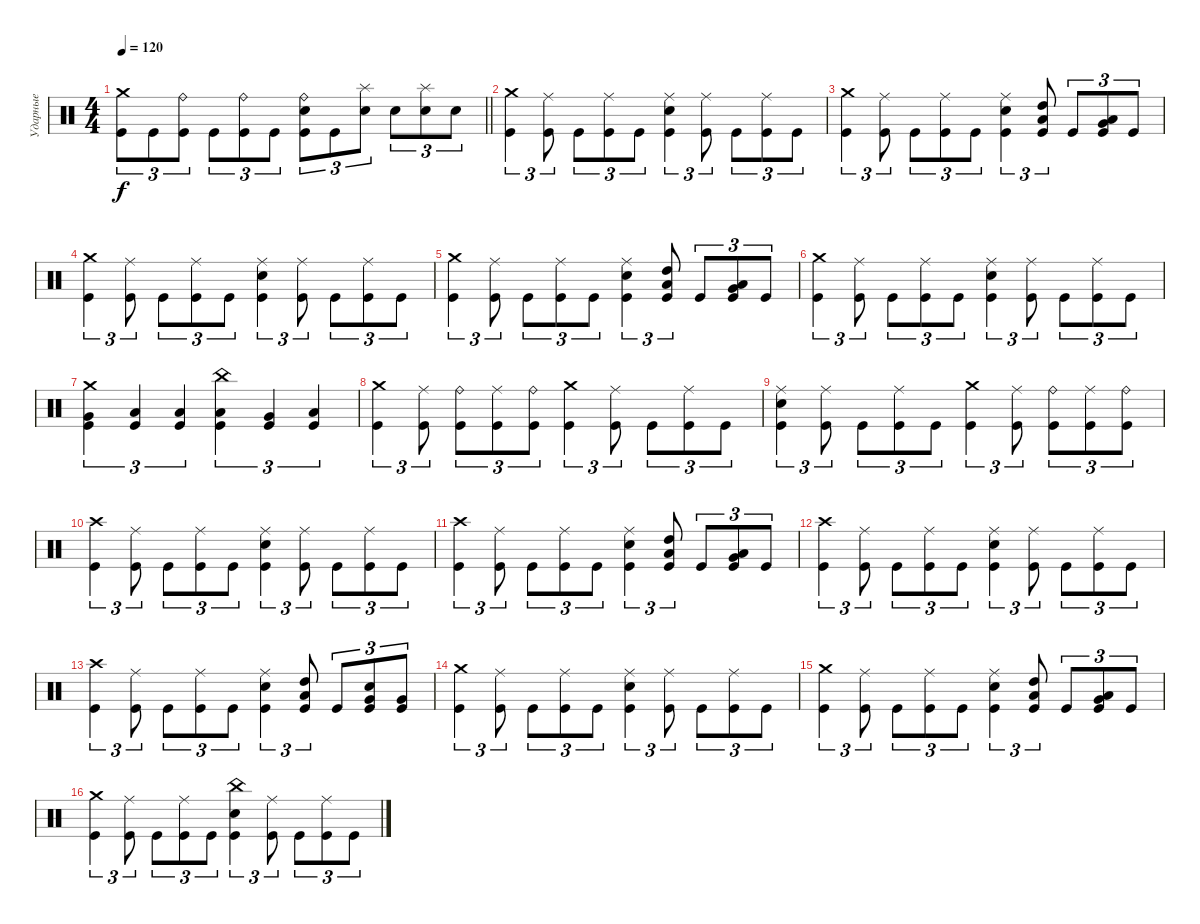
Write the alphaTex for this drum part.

\track ("Ударные" "Ударные") {instrument percussion}
\staff {score}
\articulation defaults
\ts (4 4)
\tempo 120
\clef neutral
\barLineRight lightlight
\ks c
("Crash medium (hit)" "Kick (hit)").8{tu (3 2) dy f} "Kick (hit)".8{tu (3 2)} ("Ride (bell)" "Kick (hit)").8{tu (3 2)} "Kick (hit)".8{tu (3 2)} ("Ride (bell)" "Kick (hit)").8{tu (3 2)} "Kick (hit)".8{tu (3 2)} ("Ride (bell)" "Kick (hit)" "Electric Snare (hit)").8{tu (3 2)} "Kick (hit)".8{tu (3 2)} ("Splash (hit)" "Electric Snare (hit)").8{tu (3 2)} "Electric Snare (hit)".8{tu (3 2)} ("Splash (hit)" "Electric Snare (hit)").8{tu (3 2)} "Electric Snare (hit)".8{tu (3 2)} |
\section ("" " ")
("Crash medium (hit)" "Kick (hit)").4{tu (3 2)} ("Ride (middle)" "Kick (hit)").8{tu (3 2)} "Kick (hit)".8{tu (3 2)} ("Ride (middle)" "Kick (hit)").8{tu (3 2)} "Kick (hit)".8{tu (3 2)} ("Ride (middle)" "Electric Snare (hit)" "Kick (hit)").4{tu (3 2)} ("Ride (middle)" "Kick (hit)").8{tu (3 2)} "Kick (hit)".8{tu (3 2)} ("Ride (middle)" "Kick (hit)").8{tu (3 2)} "Kick (hit)".8{tu (3 2)} |
("Crash medium (hit)" "Kick (hit)").4{tu (3 2)} ("Ride (middle)" "Kick (hit)").8{tu (3 2)} "Kick (hit)".8{tu (3 2)} ("Ride (middle)" "Kick (hit)").8{tu (3 2)} "Kick (hit)".8{tu (3 2)} ("Ride (middle)" "Electric Snare (hit)" "Kick (hit)").4{tu (3 2)} ("Low Tom (hit)" "High Tom (hit)" "Kick (hit)").8{tu (3 2)} "Kick (hit)".8{tu (3 2)} ("Very Low Tom (hit)" "Low Tom (hit)" "Kick (hit)").8{tu (3 2)} "Kick (hit)".8{tu (3 2)} |
("Crash medium (hit)" "Kick (hit)").4{tu (3 2)} ("Ride (middle)" "Kick (hit)").8{tu (3 2)} "Kick (hit)".8{tu (3 2)} ("Ride (middle)" "Kick (hit)").8{tu (3 2)} "Kick (hit)".8{tu (3 2)} ("Ride (middle)" "Electric Snare (hit)" "Kick (hit)").4{tu (3 2)} ("Ride (middle)" "Kick (hit)").8{tu (3 2)} "Kick (hit)".8{tu (3 2)} ("Ride (middle)" "Kick (hit)").8{tu (3 2)} "Kick (hit)".8{tu (3 2)} |
("Crash medium (hit)" "Kick (hit)").4{tu (3 2)} ("Ride (middle)" "Kick (hit)").8{tu (3 2)} "Kick (hit)".8{tu (3 2)} ("Ride (middle)" "Kick (hit)").8{tu (3 2)} "Kick (hit)".8{tu (3 2)} ("Ride (middle)" "Electric Snare (hit)" "Kick (hit)").4{tu (3 2)} ("Low Tom (hit)" "High Tom (hit)" "Kick (hit)").8{tu (3 2)} "Kick (hit)".8{tu (3 2)} ("Very Low Tom (hit)" "Low Tom (hit)" "Kick (hit)").8{tu (3 2)} "Kick (hit)".8{tu (3 2)} |
("Crash medium (hit)" "Kick (hit)").4{tu (3 2)} ("Ride (middle)" "Kick (hit)").8{tu (3 2)} "Kick (hit)".8{tu (3 2)} ("Ride (middle)" "Kick (hit)").8{tu (3 2)} "Kick (hit)".8{tu (3 2)} ("Ride (middle)" "Electric Snare (hit)" "Kick (hit)").4{tu (3 2)} ("Ride (middle)" "Kick (hit)").8{tu (3 2)} "Kick (hit)".8{tu (3 2)} ("Ride (middle)" "Kick (hit)").8{tu (3 2)} "Kick (hit)".8{tu (3 2)} |
("Very Low Tom (hit)" "Crash medium (hit)" "Kick (hit)").4{tu (3 2)} ("Low Floor Tom (hit)" "Kick (hit)").4{tu (3 2)} ("Low Floor Tom (hit)" "Kick (hit)").4{tu (3 2)} ("Low Tom (hit)" "China (hit)" "Kick (hit)").4{tu (3 2)} ("Very Low Tom (hit)" "Kick (hit)").4{tu (3 2)} ("Low Floor Tom (hit)" "Kick (hit)").4{tu (3 2)} |
("Kick (hit)" "Crash medium (hit)").4{tu (3 2)} ("Kick (hit)" "Ride (middle)").8{tu (3 2)} ("Kick (hit)" "Ride (bell)").8{tu (3 2)} ("Kick (hit)" "Ride (middle)").8{tu (3 2)} ("Kick (hit)" "Ride (bell)").8{tu (3 2)} ("Crash medium (hit)" "Kick (hit)").4{tu (3 2)} ("Ride (middle)" "Kick (hit)").8{tu (3 2)} "Kick (hit)".8{tu (3 2)} ("Ride (middle)" "Kick (hit)").8{tu (3 2)} "Kick (hit)".8{tu (3 2)} |
("Ride (middle)" "Electric Snare (hit)" "Kick (hit)").4{tu (3 2)} ("Ride (middle)" "Kick (hit)").8{tu (3 2)} "Kick (hit)".8{tu (3 2)} ("Ride (middle)" "Kick (hit)").8{tu (3 2)} "Kick (hit)".8{tu (3 2)} ("Kick (hit)" "Crash medium (hit)").4{tu (3 2)} ("Kick (hit)" "Ride (middle)").8{tu (3 2)} ("Kick (hit)" "Ride (bell)").8{tu (3 2)} ("Kick (hit)" "Ride (middle)").8{tu (3 2)} ("Kick (hit)" "Ride (bell)").8{tu (3 2)} |
("Crash high (hit)" "Kick (hit)").4{tu (3 2)} ("Ride (middle)" "Kick (hit)").8{tu (3 2)} "Kick (hit)".8{tu (3 2)} ("Ride (middle)" "Kick (hit)").8{tu (3 2)} "Kick (hit)".8{tu (3 2)} ("Ride (middle)" "Electric Snare (hit)" "Kick (hit)").4{tu (3 2)} ("Ride (middle)" "Kick (hit)").8{tu (3 2)} "Kick (hit)".8{tu (3 2)} ("Ride (middle)" "Kick (hit)").8{tu (3 2)} "Kick (hit)".8{tu (3 2)} |
("Crash high (hit)" "Kick (hit)").4{tu (3 2)} ("Ride (middle)" "Kick (hit)").8{tu (3 2)} "Kick (hit)".8{tu (3 2)} ("Ride (middle)" "Kick (hit)").8{tu (3 2)} "Kick (hit)".8{tu (3 2)} ("Ride (middle)" "Electric Snare (hit)" "Kick (hit)").4{tu (3 2)} ("Low Tom (hit)" "High Tom (hit)" "Kick (hit)").8{tu (3 2)} "Kick (hit)".8{tu (3 2)} ("Very Low Tom (hit)" "Low Tom (hit)" "Kick (hit)").8{tu (3 2)} "Kick (hit)".8{tu (3 2)} |
("Crash high (hit)" "Kick (hit)").4{tu (3 2)} ("Ride (middle)" "Kick (hit)").8{tu (3 2)} "Kick (hit)".8{tu (3 2)} ("Ride (middle)" "Kick (hit)").8{tu (3 2)} "Kick (hit)".8{tu (3 2)} ("Ride (middle)" "Electric Snare (hit)" "Kick (hit)").4{tu (3 2)} ("Ride (middle)" "Kick (hit)").8{tu (3 2)} "Kick (hit)".8{tu (3 2)} ("Ride (middle)" "Kick (hit)").8{tu (3 2)} "Kick (hit)".8{tu (3 2)} |
("Crash high (hit)" "Kick (hit)").4{tu (3 2)} ("Ride (middle)" "Kick (hit)").8{tu (3 2)} "Kick (hit)".8{tu (3 2)} ("Ride (middle)" "Kick (hit)").8{tu (3 2)} "Kick (hit)".8{tu (3 2)} ("Ride (middle)" "Electric Snare (hit)" "Kick (hit)").4{tu (3 2)} ("Low Tom (hit)" "High Tom (hit)" "Kick (hit)").8{tu (3 2)} "Kick (hit)".8{tu (3 2)} ("Very Low Tom (hit)" "Electric Snare (hit)" "Kick (hit)").8{tu (3 2)} ("Very Low Tom (hit)" "Kick (hit)").8{tu (3 2)} |
("Crash medium (hit)" "Kick (hit)").4{tu (3 2)} ("Ride (middle)" "Kick (hit)").8{tu (3 2)} "Kick (hit)".8{tu (3 2)} ("Ride (middle)" "Kick (hit)").8{tu (3 2)} "Kick (hit)".8{tu (3 2)} ("Ride (middle)" "Electric Snare (hit)" "Kick (hit)").4{tu (3 2)} ("Ride (middle)" "Kick (hit)").8{tu (3 2)} "Kick (hit)".8{tu (3 2)} ("Ride (middle)" "Kick (hit)").8{tu (3 2)} "Kick (hit)".8{tu (3 2)} |
("Crash medium (hit)" "Kick (hit)").4{tu (3 2)} ("Ride (middle)" "Kick (hit)").8{tu (3 2)} "Kick (hit)".8{tu (3 2)} ("Ride (middle)" "Kick (hit)").8{tu (3 2)} "Kick (hit)".8{tu (3 2)} ("Ride (middle)" "Electric Snare (hit)" "Kick (hit)").4{tu (3 2)} ("Low Tom (hit)" "High Tom (hit)" "Kick (hit)").8{tu (3 2)} "Kick (hit)".8{tu (3 2)} ("Very Low Tom (hit)" "Low Tom (hit)" "Kick (hit)").8{tu (3 2)} "Kick (hit)".8{tu (3 2)} |
("Crash medium (hit)" "Kick (hit)").4{tu (3 2)} ("Ride (middle)" "Kick (hit)").8{tu (3 2)} "Kick (hit)".8{tu (3 2)} ("Ride (middle)" "Kick (hit)").8{tu (3 2)} "Kick (hit)".8{tu (3 2)} ("China (hit)" "Electric Snare (hit)" "Kick (hit)").4{tu (3 2)} ("Ride (middle)" "Kick (hit)").8{tu (3 2)} "Kick (hit)".8{tu (3 2)} ("Ride (middle)" "Kick (hit)").8{tu (3 2)} "Kick (hit)".8{tu (3 2)}
